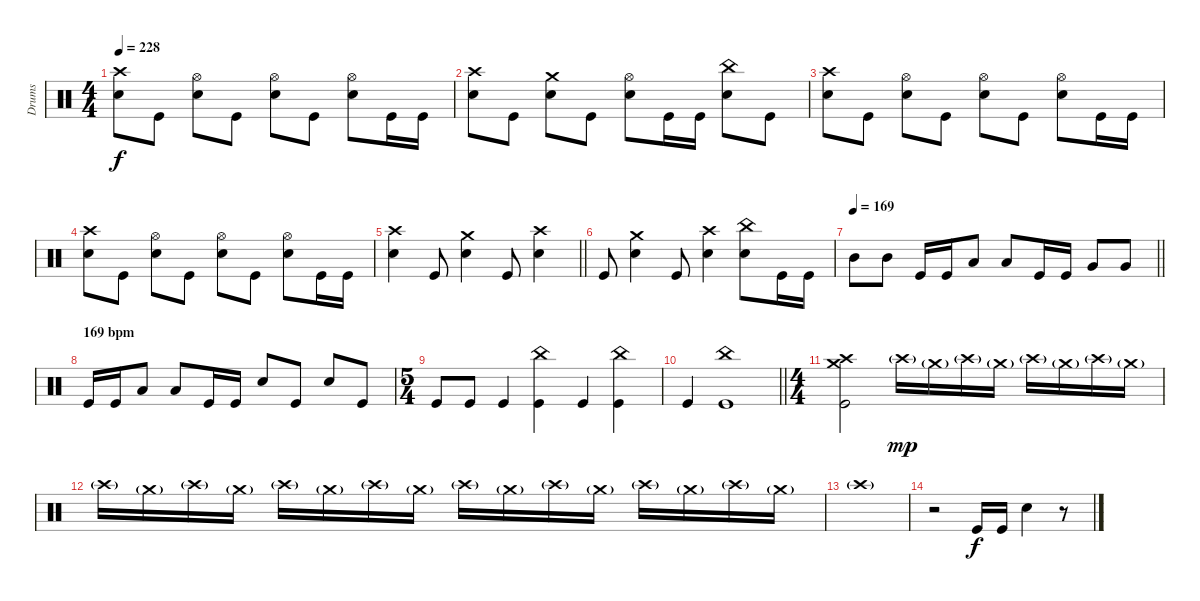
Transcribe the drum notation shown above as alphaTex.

\track ("Drums" "Drums") {instrument percussion}
\staff
\articulation defaults
\ts (4 4)
\tempo 228
\clef neutral
\ks c
("Crash high (hit)" "Electric Snare (hit)").8{dy f} "Kick (hit)".8 ("Hi-Hat (open)" "Electric Snare (hit)").8 "Kick (hit)".8 ("Hi-Hat (open)" "Electric Snare (hit)").8 "Kick (hit)".8 ("Hi-Hat (open)" "Electric Snare (hit)").8 "Kick (hit)".16 "Kick (hit)".16 |
("Crash high (hit)" "Electric Snare (hit)").8 "Kick (hit)".8 ("Crash medium (hit)" "Electric Snare (hit)").8 "Kick (hit)".8 ("Hi-Hat (open)" "Electric Snare (hit)").8 "Kick (hit)".16 "Kick (hit)".16 ("China (hit)" "Electric Snare (hit)").8 "Kick (hit)".8 |
("Crash high (hit)" "Electric Snare (hit)").8 "Kick (hit)".8 ("Hi-Hat (open)" "Electric Snare (hit)").8 "Kick (hit)".8 ("Hi-Hat (open)" "Electric Snare (hit)").8 "Kick (hit)".8 ("Hi-Hat (open)" "Electric Snare (hit)").8 "Kick (hit)".16 "Kick (hit)".16 |
("Crash high (hit)" "Electric Snare (hit)").8 "Kick (hit)".8 ("Hi-Hat (open)" "Electric Snare (hit)").8 "Kick (hit)".8 ("Hi-Hat (open)" "Electric Snare (hit)").8 "Kick (hit)".8 ("Hi-Hat (open)" "Electric Snare (hit)").8 "Kick (hit)".16 "Kick (hit)".16 |
\barLineRight lightlight
("Crash high (hit)" "Electric Snare (hit)").4 "Kick (hit)".8 ("Crash medium (hit)" "Electric Snare (hit)").4 "Kick (hit)".8 ("Crash high (hit)" "Electric Snare (hit)").4 |
"Kick (hit)".8 ("Crash medium (hit)" "Electric Snare (hit)").4 "Kick (hit)".8 ("Crash high (hit)" "Electric Snare (hit)").4 ("China (hit)" "Electric Snare (hit)").8 "Kick (hit)".16 "Kick (hit)".16 |
\tempo 169
\barLineRight lightlight "Mid Tom (hit)".8 "Mid Tom (hit)".8 "Kick (hit)".16 "Kick (hit)".16 "Low Tom (hit)".8 "Low Tom (hit)".8 "Kick (hit)".16 "Kick (hit)".16 "Very Low Tom (hit)".8 "Very Low Tom (hit)".8
|
\section ("" "169 bpm")
"Kick (hit)".16 "Kick (hit)".16 "Low Floor Tom (hit)".8 "Low Floor Tom (hit)".8 "Kick (hit)".16 "Kick (hit)".16 "Electric Snare (hit)".8 "Kick (hit)".8 "Electric Snare (hit)".8 "Kick (hit)".8 |
\ts (5 4)
"Kick (hit)".8 "Kick (hit)".8 "Kick (hit)".4 ("China (hit)" "Kick (hit)").4 "Kick (hit)".4 ("China (hit)" "Kick (hit)").4 |
\barLineRight lightlight "Kick (hit)".4
("China (hit)" "Kick (hit)").1 |
\ts (4 4)
\section ("" "")
("Crash high (hit)" "Crash medium (hit)" "Kick (hit)").2 "Crash high (hit)"{g}.16{dy mp} "Crash medium (hit)"{g}.16 "Crash high (hit)"{g}.16 "Crash medium (hit)"{g}.16 "Crash high (hit)"{g}.16 "Crash medium (hit)"{g}.16 "Crash high (hit)"{g}.16 "Crash medium (hit)"{g}.16 |
"Crash high (hit)"{g}.16 "Crash medium (hit)"{g}.16 "Crash high (hit)"{g}.16 "Crash medium (hit)"{g}.16 "Crash high (hit)"{g}.16 "Crash medium (hit)"{g}.16 "Crash high (hit)"{g}.16 "Crash medium (hit)"{g}.16 "Crash high (hit)"{g}.16 "Crash medium (hit)"{g}.16 "Crash high (hit)"{g}.16 "Crash medium (hit)"{g}.16 "Crash high (hit)"{g}.16 "Crash medium (hit)"{g}.16 "Crash high (hit)"{g}.16 "Crash medium (hit)"{g}.16 |
"Crash high (hit)"{g}.1 |
r.2 "Kick (hit)".16{dy f} "Kick (hit)".16 "Electric Snare (hit)".4 r.8
